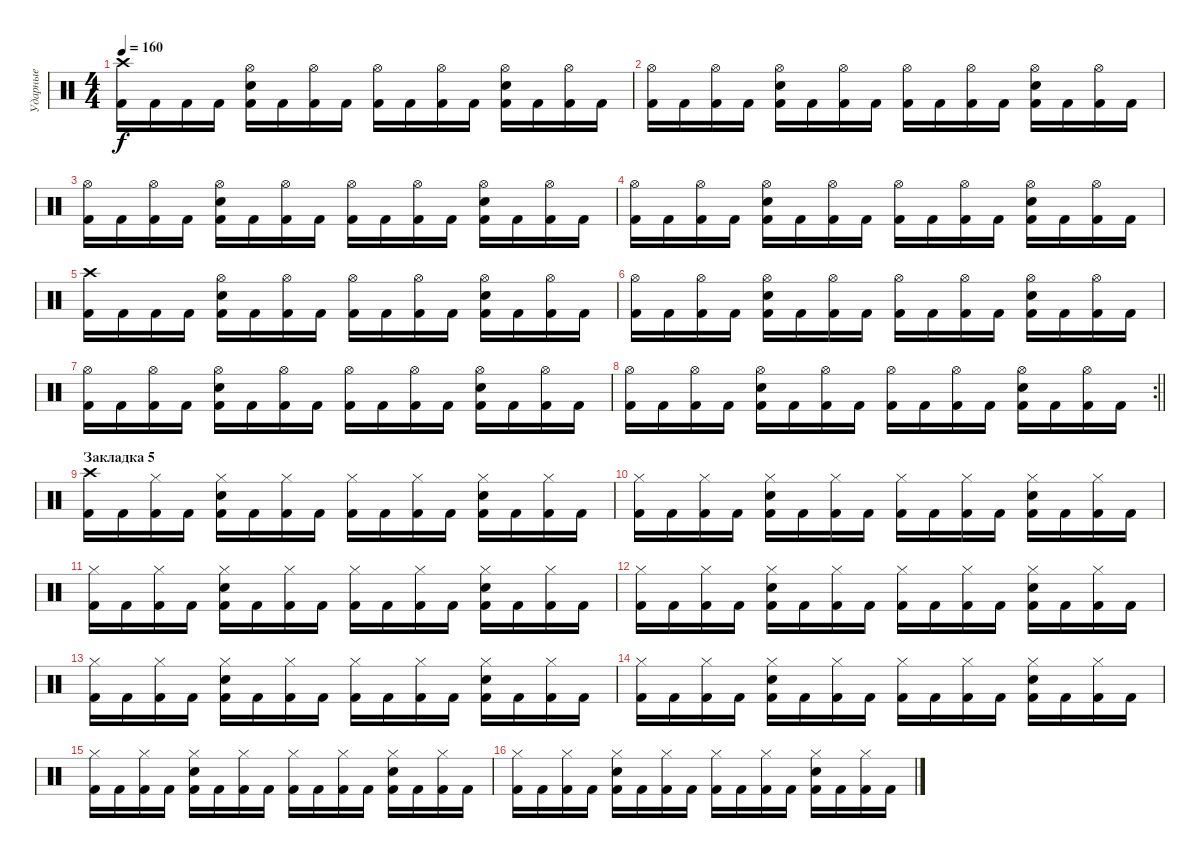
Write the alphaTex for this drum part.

\track ("Ударные" "Ударные") {instrument percussion}
\staff {score}
\articulation defaults
\ts (4 4)
\tempo 160
\clef neutral
\ks c
("Crash high (hit)" "Kick (hit) 2").16{dy f} "Kick (hit) 2".16 "Kick (hit) 2".16 "Kick (hit) 2".16 ("Electric Snare (hit)" "Hi-Hat (open)" "Kick (hit) 2").16 "Kick (hit) 2".16 ("Hi-Hat (open)" "Kick (hit) 2").16 "Kick (hit) 2".16 ("Hi-Hat (open)" "Kick (hit) 2").16 "Kick (hit) 2".16 ("Hi-Hat (open)" "Kick (hit) 2").16 "Kick (hit) 2".16 ("Electric Snare (hit)" "Hi-Hat (open)" "Kick (hit) 2").16 "Kick (hit) 2".16 ("Hi-Hat (open)" "Kick (hit) 2").16 "Kick (hit) 2".16 |
("Hi-Hat (open)" "Kick (hit) 2").16 "Kick (hit) 2".16 ("Hi-Hat (open)" "Kick (hit) 2").16 "Kick (hit) 2".16 ("Electric Snare (hit)" "Hi-Hat (open)" "Kick (hit) 2").16 "Kick (hit) 2".16 ("Hi-Hat (open)" "Kick (hit) 2").16 "Kick (hit) 2".16 ("Hi-Hat (open)" "Kick (hit) 2").16 "Kick (hit) 2".16 ("Hi-Hat (open)" "Kick (hit) 2").16 "Kick (hit) 2".16 ("Electric Snare (hit)" "Hi-Hat (open)" "Kick (hit) 2").16 "Kick (hit) 2".16 ("Hi-Hat (open)" "Kick (hit) 2").16 "Kick (hit) 2".16 |
("Hi-Hat (open)" "Kick (hit) 2").16 "Kick (hit) 2".16 ("Hi-Hat (open)" "Kick (hit) 2").16 "Kick (hit) 2".16 ("Electric Snare (hit)" "Hi-Hat (open)" "Kick (hit) 2").16 "Kick (hit) 2".16 ("Hi-Hat (open)" "Kick (hit) 2").16 "Kick (hit) 2".16 ("Hi-Hat (open)" "Kick (hit) 2").16 "Kick (hit) 2".16 ("Hi-Hat (open)" "Kick (hit) 2").16 "Kick (hit) 2".16 ("Electric Snare (hit)" "Hi-Hat (open)" "Kick (hit) 2").16 "Kick (hit) 2".16 ("Hi-Hat (open)" "Kick (hit) 2").16 "Kick (hit) 2".16 |
("Hi-Hat (open)" "Kick (hit) 2").16 "Kick (hit) 2".16 ("Hi-Hat (open)" "Kick (hit) 2").16 "Kick (hit) 2".16 ("Electric Snare (hit)" "Hi-Hat (open)" "Kick (hit) 2").16 "Kick (hit) 2".16 ("Hi-Hat (open)" "Kick (hit) 2").16 "Kick (hit) 2".16 ("Hi-Hat (open)" "Kick (hit) 2").16 "Kick (hit) 2".16 ("Hi-Hat (open)" "Kick (hit) 2").16 "Kick (hit) 2".16 ("Electric Snare (hit)" "Hi-Hat (open)" "Kick (hit) 2").16 "Kick (hit) 2".16 ("Hi-Hat (open)" "Kick (hit) 2").16 "Kick (hit) 2".16 |
("Crash high (hit)" "Kick (hit) 2").16 "Kick (hit) 2".16 "Kick (hit) 2".16 "Kick (hit) 2".16 ("Electric Snare (hit)" "Hi-Hat (open)" "Kick (hit) 2").16 "Kick (hit) 2".16 ("Hi-Hat (open)" "Kick (hit) 2").16 "Kick (hit) 2".16 ("Hi-Hat (open)" "Kick (hit) 2").16 "Kick (hit) 2".16 ("Hi-Hat (open)" "Kick (hit) 2").16 "Kick (hit) 2".16 ("Electric Snare (hit)" "Hi-Hat (open)" "Kick (hit) 2").16 "Kick (hit) 2".16 ("Hi-Hat (open)" "Kick (hit) 2").16 "Kick (hit) 2".16 |
("Hi-Hat (open)" "Kick (hit) 2").16 "Kick (hit) 2".16 ("Hi-Hat (open)" "Kick (hit) 2").16 "Kick (hit) 2".16 ("Electric Snare (hit)" "Hi-Hat (open)" "Kick (hit) 2").16 "Kick (hit) 2".16 ("Hi-Hat (open)" "Kick (hit) 2").16 "Kick (hit) 2".16 ("Hi-Hat (open)" "Kick (hit) 2").16 "Kick (hit) 2".16 ("Hi-Hat (open)" "Kick (hit) 2").16 "Kick (hit) 2".16 ("Electric Snare (hit)" "Hi-Hat (open)" "Kick (hit) 2").16 "Kick (hit) 2".16 ("Hi-Hat (open)" "Kick (hit) 2").16 "Kick (hit) 2".16 |
("Hi-Hat (open)" "Kick (hit) 2").16 "Kick (hit) 2".16 ("Hi-Hat (open)" "Kick (hit) 2").16 "Kick (hit) 2".16 ("Electric Snare (hit)" "Hi-Hat (open)" "Kick (hit) 2").16 "Kick (hit) 2".16 ("Hi-Hat (open)" "Kick (hit) 2").16 "Kick (hit) 2".16 ("Hi-Hat (open)" "Kick (hit) 2").16 "Kick (hit) 2".16 ("Hi-Hat (open)" "Kick (hit) 2").16 "Kick (hit) 2".16 ("Electric Snare (hit)" "Hi-Hat (open)" "Kick (hit) 2").16 "Kick (hit) 2".16 ("Hi-Hat (open)" "Kick (hit) 2").16 "Kick (hit) 2".16 |
\rc 2
\barLineRight lightlight
("Hi-Hat (open)" "Kick (hit) 2").16 "Kick (hit) 2".16 ("Hi-Hat (open)" "Kick (hit) 2").16 "Kick (hit) 2".16 ("Electric Snare (hit)" "Hi-Hat (open)" "Kick (hit) 2").16 "Kick (hit) 2".16 ("Hi-Hat (open)" "Kick (hit) 2").16 "Kick (hit) 2".16 ("Hi-Hat (open)" "Kick (hit) 2").16 "Kick (hit) 2".16 ("Hi-Hat (open)" "Kick (hit) 2").16 "Kick (hit) 2".16 ("Electric Snare (hit)" "Hi-Hat (open)" "Kick (hit) 2").16 "Kick (hit) 2".16 ("Hi-Hat (open)" "Kick (hit) 2").16 "Kick (hit) 2".16 |
\section ("" "Закладка 5")
("Crash high (hit)" "Kick (hit) 2").16 "Kick (hit) 2".16 ("Hi-Hat (closed)" "Kick (hit) 2").16 "Kick (hit) 2".16 ("Electric Snare (hit)" "Hi-Hat (closed)" "Kick (hit) 2").16 "Kick (hit) 2".16 ("Hi-Hat (closed)" "Kick (hit) 2").16 "Kick (hit) 2".16 ("Hi-Hat (closed)" "Kick (hit) 2").16 "Kick (hit) 2".16 ("Hi-Hat (closed)" "Kick (hit) 2").16 "Kick (hit) 2".16 ("Electric Snare (hit)" "Hi-Hat (closed)" "Kick (hit) 2").16 "Kick (hit) 2".16 ("Hi-Hat (closed)" "Kick (hit) 2").16 "Kick (hit) 2".16 |
("Hi-Hat (closed)" "Kick (hit) 2").16 "Kick (hit) 2".16 ("Hi-Hat (closed)" "Kick (hit) 2").16 "Kick (hit) 2".16 ("Electric Snare (hit)" "Hi-Hat (closed)" "Kick (hit) 2").16 "Kick (hit) 2".16 ("Hi-Hat (closed)" "Kick (hit) 2").16 "Kick (hit) 2".16 ("Hi-Hat (closed)" "Kick (hit) 2").16 "Kick (hit) 2".16 ("Hi-Hat (closed)" "Kick (hit) 2").16 "Kick (hit) 2".16 ("Electric Snare (hit)" "Hi-Hat (closed)" "Kick (hit) 2").16 "Kick (hit) 2".16 ("Hi-Hat (closed)" "Kick (hit) 2").16 "Kick (hit) 2".16 |
("Hi-Hat (closed)" "Kick (hit) 2").16 "Kick (hit) 2".16 ("Hi-Hat (closed)" "Kick (hit) 2").16 "Kick (hit) 2".16 ("Electric Snare (hit)" "Hi-Hat (closed)" "Kick (hit) 2").16 "Kick (hit) 2".16 ("Hi-Hat (closed)" "Kick (hit) 2").16 "Kick (hit) 2".16 ("Hi-Hat (closed)" "Kick (hit) 2").16 "Kick (hit) 2".16 ("Hi-Hat (closed)" "Kick (hit) 2").16 "Kick (hit) 2".16 ("Electric Snare (hit)" "Hi-Hat (closed)" "Kick (hit) 2").16 "Kick (hit) 2".16 ("Hi-Hat (closed)" "Kick (hit) 2").16 "Kick (hit) 2".16 |
("Hi-Hat (closed)" "Kick (hit) 2").16 "Kick (hit) 2".16 ("Hi-Hat (closed)" "Kick (hit) 2").16 "Kick (hit) 2".16 ("Electric Snare (hit)" "Hi-Hat (closed)" "Kick (hit) 2").16 "Kick (hit) 2".16 ("Hi-Hat (closed)" "Kick (hit) 2").16 "Kick (hit) 2".16 ("Hi-Hat (closed)" "Kick (hit) 2").16 "Kick (hit) 2".16 ("Hi-Hat (closed)" "Kick (hit) 2").16 "Kick (hit) 2".16 ("Electric Snare (hit)" "Hi-Hat (closed)" "Kick (hit) 2").16 "Kick (hit) 2".16 ("Hi-Hat (closed)" "Kick (hit) 2").16 "Kick (hit) 2".16 |
("Hi-Hat (closed)" "Kick (hit) 2").16 "Kick (hit) 2".16 ("Hi-Hat (closed)" "Kick (hit) 2").16 "Kick (hit) 2".16 ("Electric Snare (hit)" "Hi-Hat (closed)" "Kick (hit) 2").16 "Kick (hit) 2".16 ("Hi-Hat (closed)" "Kick (hit) 2").16 "Kick (hit) 2".16 ("Hi-Hat (closed)" "Kick (hit) 2").16 "Kick (hit) 2".16 ("Hi-Hat (closed)" "Kick (hit) 2").16 "Kick (hit) 2".16 ("Electric Snare (hit)" "Hi-Hat (closed)" "Kick (hit) 2").16 "Kick (hit) 2".16 ("Hi-Hat (closed)" "Kick (hit) 2").16 "Kick (hit) 2".16 |
("Hi-Hat (closed)" "Kick (hit) 2").16 "Kick (hit) 2".16 ("Hi-Hat (closed)" "Kick (hit) 2").16 "Kick (hit) 2".16 ("Electric Snare (hit)" "Hi-Hat (closed)" "Kick (hit) 2").16 "Kick (hit) 2".16 ("Hi-Hat (closed)" "Kick (hit) 2").16 "Kick (hit) 2".16 ("Hi-Hat (closed)" "Kick (hit) 2").16 "Kick (hit) 2".16 ("Hi-Hat (closed)" "Kick (hit) 2").16 "Kick (hit) 2".16 ("Electric Snare (hit)" "Hi-Hat (closed)" "Kick (hit) 2").16 "Kick (hit) 2".16 ("Hi-Hat (closed)" "Kick (hit) 2").16 "Kick (hit) 2".16 |
("Hi-Hat (closed)" "Kick (hit) 2").16 "Kick (hit) 2".16 ("Hi-Hat (closed)" "Kick (hit) 2").16 "Kick (hit) 2".16 ("Electric Snare (hit)" "Hi-Hat (closed)" "Kick (hit) 2").16 "Kick (hit) 2".16 ("Hi-Hat (closed)" "Kick (hit) 2").16 "Kick (hit) 2".16 ("Hi-Hat (closed)" "Kick (hit) 2").16 "Kick (hit) 2".16 ("Hi-Hat (closed)" "Kick (hit) 2").16 "Kick (hit) 2".16 ("Electric Snare (hit)" "Hi-Hat (closed)" "Kick (hit) 2").16 "Kick (hit) 2".16 ("Hi-Hat (closed)" "Kick (hit) 2").16 "Kick (hit) 2".16 |
("Hi-Hat (closed)" "Kick (hit) 2").16 "Kick (hit) 2".16 ("Hi-Hat (closed)" "Kick (hit) 2").16 "Kick (hit) 2".16 ("Electric Snare (hit)" "Hi-Hat (closed)" "Kick (hit) 2").16 "Kick (hit) 2".16 ("Hi-Hat (closed)" "Kick (hit) 2").16 "Kick (hit) 2".16 ("Hi-Hat (closed)" "Kick (hit) 2").16 "Kick (hit) 2".16 ("Hi-Hat (closed)" "Kick (hit) 2").16 "Kick (hit) 2".16 ("Electric Snare (hit)" "Hi-Hat (closed)" "Kick (hit) 2").16 "Kick (hit) 2".16 ("Hi-Hat (closed)" "Kick (hit) 2").16 "Kick (hit) 2".16
